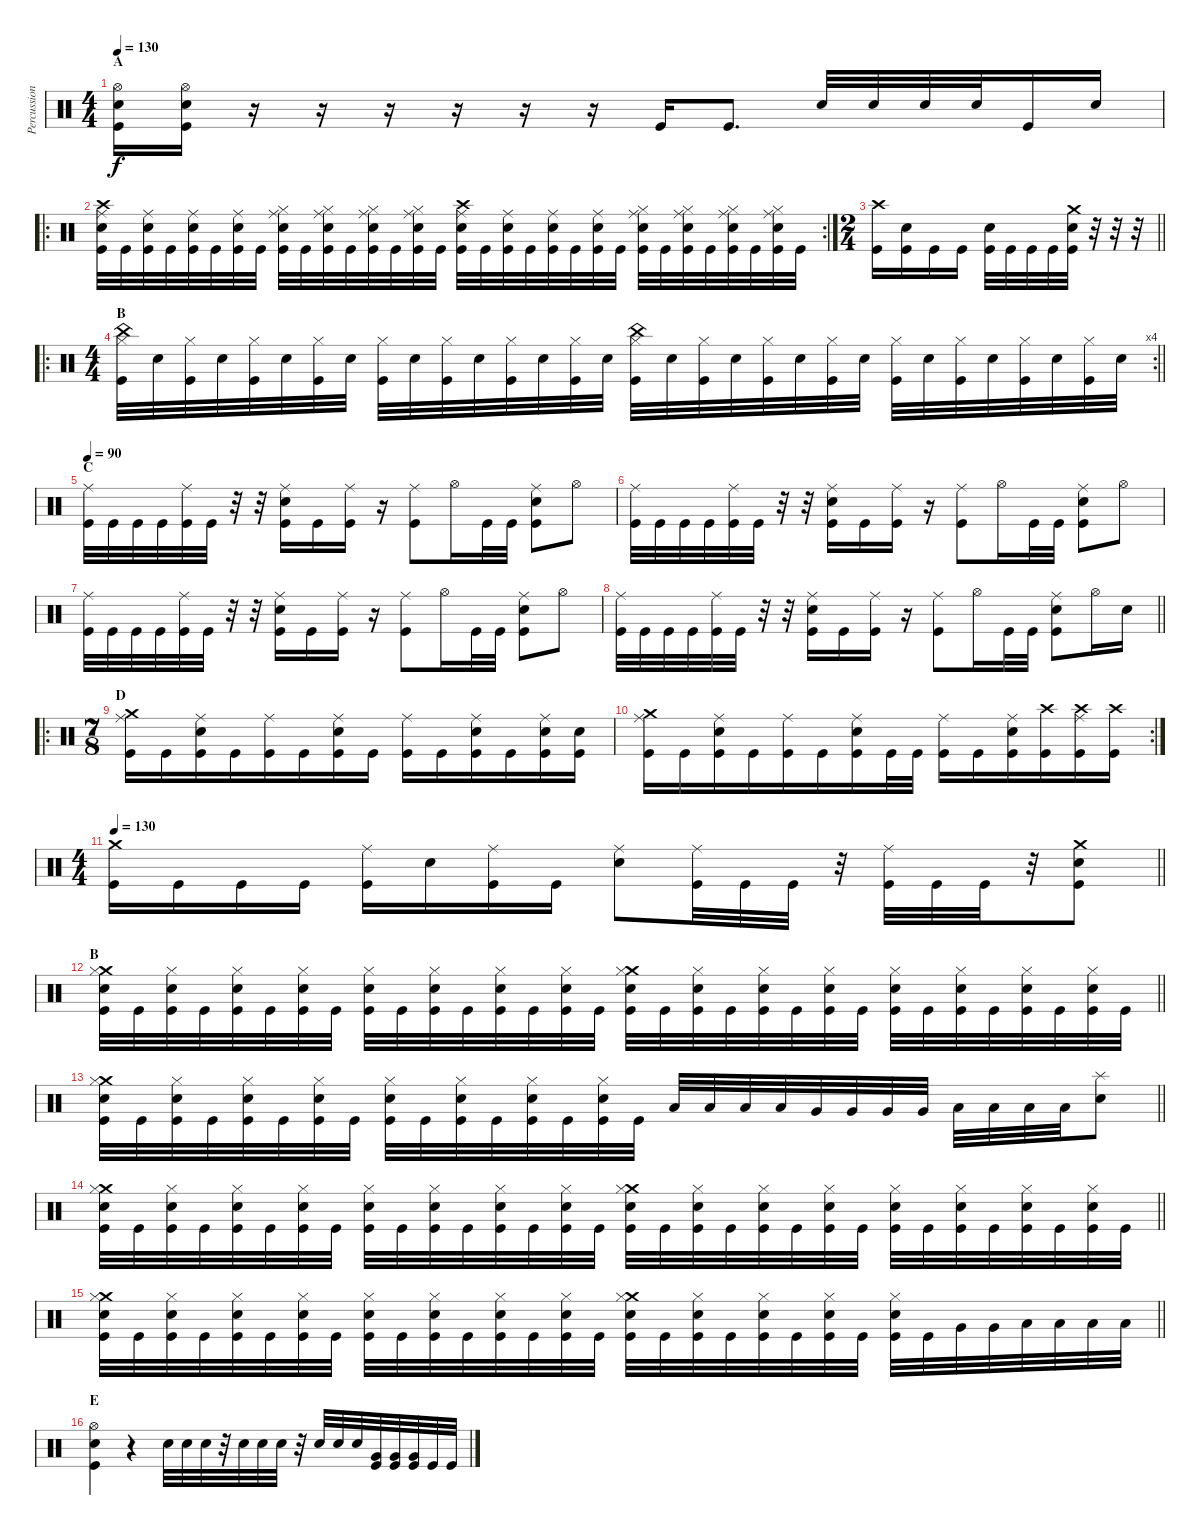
\track ("Percussion" "Percussion") {instrument percussion}
\staff {score}
\articulation defaults
\ts (4 4)
\section ("" "A")
\tempo 130
\clef neutral
\ks c
("Kick (hit)" "Snare (hit) 2" "Hi-Hat (open)").16{dy f} ("Kick (hit)" "Snare (hit) 2" "Hi-Hat (open)").16 r.16 r.16 r.16 r.16 r.16 r.16 "Kick (hit)".16 "Kick (hit)".8{d} "Snare (hit) 2".32 "Snare (hit) 2".32 "Snare (hit) 2".32 "Snare (hit) 2".32 "Kick (hit)".16 "Snare (hit) 2".16 |
\ro
\rc 2
("Kick (hit)" "Ride (middle)" "Snare (hit) 2" "Crash high (hit)").32 "Kick (hit)".32 ("Kick (hit)" "Ride (middle)" "Snare (hit) 2").32 "Kick (hit)".32 ("Kick (hit)" "Ride (middle)" "Snare (hit) 2").32 "Kick (hit)".32 ("Kick (hit)" "Ride (middle)" "Snare (hit) 2").32 "Kick (hit)".32 ("Kick (hit)" "Ride (middle)" "Snare (hit) 2" "Hi-Hat (closed)").32 "Kick (hit)".32 ("Kick (hit)" "Ride (middle)" "Snare (hit) 2" "Hi-Hat (closed)").32 "Kick (hit)".32 ("Kick (hit)" "Ride (middle)" "Snare (hit) 2" "Hi-Hat (closed)").32 "Kick (hit)".32 ("Kick (hit)" "Ride (middle)" "Snare (hit) 2" "Hi-Hat (closed)").32 "Kick (hit)".32 ("Kick (hit)" "Ride (middle)" "Snare (hit) 2" "Crash high (hit)").32 "Kick (hit)".32 ("Kick (hit)" "Ride (middle)" "Snare (hit) 2").32 "Kick (hit)".32 ("Kick (hit)" "Ride (middle)" "Snare (hit) 2").32 "Kick (hit)".32 ("Kick (hit)" "Ride (middle)" "Snare (hit) 2").32 "Kick (hit)".32 ("Kick (hit)" "Ride (middle)" "Snare (hit) 2" "Hi-Hat (closed)").32 "Kick (hit)".32 ("Kick (hit)" "Ride (middle)" "Snare (hit) 2" "Hi-Hat (closed)").32 "Kick (hit)".32 ("Kick (hit)" "Ride (middle)" "Snare (hit) 2" "Hi-Hat (closed)").32 "Kick (hit)".32 ("Kick (hit)" "Ride (middle)" "Snare (hit) 2" "Hi-Hat (closed)").32 "Kick (hit)".32 |
\ts (2 4)
\barLineRight lightlight
("Kick (hit)" "Crash high (hit)").16 ("Kick (hit)" "Snare (hit) 2").16 "Kick (hit)".16 "Kick (hit)".16 ("Kick (hit)" "Snare (hit) 2").32 "Kick (hit)".32 "Kick (hit)".32 "Kick (hit)".32 ("Kick (hit)" "Snare (hit) 2" "Crash medium (hit)").32 r.32 r.32 r.32 |
\ro
\rc 4
\ts (4 4)
\section ("" "B")
\barLineRight lightlight
("Kick (hit)" "Hi-Hat (closed)" "China (hit)").32 "Snare (hit) 2".32 ("Kick (hit)" "Hi-Hat (closed)").32 "Snare (hit) 2".32 ("Kick (hit)" "Hi-Hat (closed)").32 "Snare (hit) 2".32 ("Kick (hit)" "Hi-Hat (closed)").32 "Snare (hit) 2".32 ("Kick (hit)" "Hi-Hat (closed)").32 "Snare (hit) 2".32 ("Kick (hit)" "Hi-Hat (closed)").32 "Snare (hit) 2".32 ("Kick (hit)" "Hi-Hat (closed)").32 "Snare (hit) 2".32 ("Kick (hit)" "Hi-Hat (closed)").32 "Snare (hit) 2".32 ("Kick (hit)" "Hi-Hat (closed)" "China (hit)").32 "Snare (hit) 2".32 ("Kick (hit)" "Hi-Hat (closed)").32 "Snare (hit) 2".32 ("Kick (hit)" "Hi-Hat (closed)").32 "Snare (hit) 2".32 ("Kick (hit)" "Hi-Hat (closed)").32 "Snare (hit) 2".32 ("Kick (hit)" "Hi-Hat (closed)").32 "Snare (hit) 2".32 ("Kick (hit)" "Hi-Hat (closed)").32 "Snare (hit) 2".32 ("Kick (hit)" "Hi-Hat (closed)").32 "Snare (hit) 2".32 ("Kick (hit)" "Hi-Hat (closed)").32 "Snare (hit) 2".32 |
\section ("" "C")
\tempo 90
("Kick (hit)" "Ride (middle)").32 "Kick (hit)".32 "Kick (hit)".32 "Kick (hit)".32 ("Kick (hit)" "Ride (middle)").32 "Kick (hit)".32 r.32 r.32 ("Kick (hit)" "Ride (middle)" "Snare (hit) 2").16 "Kick (hit)".16 ("Kick (hit)" "Ride (middle)").16 r.16 ("Kick (hit)" "Ride (middle)").8 "Hi-Hat (open)".16 "Kick (hit)".32 "Kick (hit)".32 ("Kick (hit)" "Snare (hit) 2" "Ride (middle)").8 "Hi-Hat (open)".8 |
("Kick (hit)" "Ride (middle)").32 "Kick (hit)".32 "Kick (hit)".32 "Kick (hit)".32 ("Kick (hit)" "Ride (middle)").32 "Kick (hit)".32 r.32 r.32 ("Kick (hit)" "Ride (middle)" "Snare (hit) 2").16 "Kick (hit)".16 ("Kick (hit)" "Ride (middle)").16 r.16 ("Kick (hit)" "Ride (middle)").8 "Hi-Hat (open)".16 "Kick (hit)".32 "Kick (hit)".32 ("Kick (hit)" "Snare (hit) 2" "Ride (middle)").8 "Hi-Hat (open)".8 |
("Kick (hit)" "Ride (middle)").32 "Kick (hit)".32 "Kick (hit)".32 "Kick (hit)".32 ("Kick (hit)" "Ride (middle)").32 "Kick (hit)".32 r.32 r.32 ("Kick (hit)" "Ride (middle)" "Snare (hit) 2").16 "Kick (hit)".16 ("Kick (hit)" "Ride (middle)").16 r.16 ("Kick (hit)" "Ride (middle)").8 "Hi-Hat (open)".16 "Kick (hit)".32 "Kick (hit)".32 ("Kick (hit)" "Snare (hit) 2" "Ride (middle)").8 "Hi-Hat (open)".8 |
\barLineRight lightlight
("Kick (hit)" "Ride (middle)").32 "Kick (hit)".32 "Kick (hit)".32 "Kick (hit)".32 ("Kick (hit)" "Ride (middle)").32 "Kick (hit)".32 r.32 r.32 ("Kick (hit)" "Ride (middle)" "Snare (hit) 2").16 "Kick (hit)".16 ("Kick (hit)" "Ride (middle)").16 r.16 ("Kick (hit)" "Ride (middle)").8 "Hi-Hat (open)".16 "Kick (hit)".32 "Kick (hit)".32 ("Kick (hit)" "Snare (hit) 2" "Ride (middle)").8 "Hi-Hat (open)".16 "Snare (hit) 2".16 |
\ro
\ts (7 8)
\section ("" "D")
("Kick (hit)" "Ride (middle)" "Crash medium (hit)").16 "Kick (hit)".16 ("Kick (hit)" "Ride (middle)" "Snare (hit) 2").16 "Kick (hit)".16 ("Kick (hit)" "Ride (middle)").16 "Kick (hit)".16 ("Kick (hit)" "Ride (middle)" "Snare (hit) 2").16 "Kick (hit)".16 ("Kick (hit)" "Ride (middle)").16 "Kick (hit)".16 ("Kick (hit)" "Ride (middle)" "Snare (hit) 2").16 "Kick (hit)".16 ("Kick (hit)" "Ride (middle)" "Snare (hit) 2").16 ("Kick (hit)" "Snare (hit) 2").16 |
\rc 2
("Kick (hit)" "Ride (middle)" "Crash medium (hit)").16 "Kick (hit)".16 ("Kick (hit)" "Ride (middle)" "Snare (hit) 2").16 "Kick (hit)".16 ("Kick (hit)" "Ride (middle)").16 "Kick (hit)".16 ("Kick (hit)" "Ride (middle)" "Snare (hit) 2").16 "Kick (hit)".32 "Kick (hit)".32 ("Kick (hit)" "Ride (middle)").16 "Kick (hit)".16 ("Kick (hit)" "Ride (middle)" "Snare (hit) 2").16 ("Kick (hit)" "Crash high (hit)").16 ("Kick (hit)" "Ride (middle)" "Crash high (hit)").16 ("Kick (hit)" "Crash high (hit)").16 |
\ts (4 4)
\tempo 130
\barLineRight lightlight
("Kick (hit)" "Crash medium (hit)").16 "Kick (hit)".16 "Kick (hit)".16 "Kick (hit)".16 ("Kick (hit)" "Ride (middle)").16 "Snare (hit) 2".16 ("Kick (hit)" "Ride (middle)").16 "Kick (hit)".16 ("Snare (hit) 2" "Ride (middle)").8 ("Kick (hit)" "Ride (middle)").32 "Kick (hit)".32 "Kick (hit)".32 r.32 ("Kick (hit)" "Ride (middle)").32 "Kick (hit)".32 "Kick (hit)".32 r.32 ("Kick (hit)" "Snare (hit) 2" "Crash medium (hit)").8 |
\section ("" "B")
\barLineRight lightlight
("Kick (hit)" "Snare (hit) 2" "Crash medium (hit)" "Hi-Hat (closed)").32 "Kick (hit)".32 ("Kick (hit)" "Snare (hit) 2" "Hi-Hat (closed)").32 "Kick (hit)".32 ("Kick (hit)" "Snare (hit) 2" "Hi-Hat (closed)").32 "Kick (hit)".32 ("Kick (hit)" "Snare (hit) 2" "Hi-Hat (closed)").32 "Kick (hit)".32 ("Kick (hit)" "Snare (hit) 2" "Hi-Hat (closed)").32 "Kick (hit)".32 ("Kick (hit)" "Snare (hit) 2" "Hi-Hat (closed)").32 "Kick (hit)".32 ("Kick (hit)" "Snare (hit) 2" "Hi-Hat (closed)").32 "Kick (hit)".32 ("Kick (hit)" "Snare (hit) 2" "Hi-Hat (closed)").32 "Kick (hit)".32 ("Kick (hit)" "Snare (hit) 2" "Crash medium (hit)" "Hi-Hat (closed)").32 "Kick (hit)".32 ("Kick (hit)" "Snare (hit) 2" "Hi-Hat (closed)").32 "Kick (hit)".32 ("Kick (hit)" "Snare (hit) 2" "Hi-Hat (closed)").32 "Kick (hit)".32 ("Kick (hit)" "Snare (hit) 2" "Hi-Hat (closed)").32 "Kick (hit)".32 ("Kick (hit)" "Snare (hit) 2" "Hi-Hat (closed)").32 "Kick (hit)".32 ("Kick (hit)" "Snare (hit) 2" "Hi-Hat (closed)").32 "Kick (hit)".32 ("Kick (hit)" "Snare (hit) 2" "Hi-Hat (closed)").32 "Kick (hit)".32 ("Kick (hit)" "Snare (hit) 2" "Hi-Hat (closed)").32 "Kick (hit)".32 |
\barLineRight lightlight
("Kick (hit)" "Snare (hit) 2" "Crash medium (hit)" "Hi-Hat (closed)").32 "Kick (hit)".32 ("Kick (hit)" "Snare (hit) 2" "Hi-Hat (closed)").32 "Kick (hit)".32 ("Kick (hit)" "Snare (hit) 2" "Hi-Hat (closed)").32 "Kick (hit)".32 ("Kick (hit)" "Snare (hit) 2" "Hi-Hat (closed)").32 "Kick (hit)".32 ("Kick (hit)" "Snare (hit) 2" "Hi-Hat (closed)").32 "Kick (hit)".32 ("Kick (hit)" "Snare (hit) 2" "Hi-Hat (closed)").32 "Kick (hit)".32 ("Kick (hit)" "Snare (hit) 2" "Hi-Hat (closed)").32 "Kick (hit)".32 ("Kick (hit)" "Snare (hit) 2" "Hi-Hat (closed)").32 "Kick (hit)".32 "Low Tom (hit)".32 "Low Tom (hit)".32 "Low Tom (hit)".32 "Low Tom (hit)".32 "Very Low Tom (hit)".32 "Very Low Tom (hit)".32 "Very Low Tom (hit)".32 "Very Low Tom (hit)".32 "Low Floor Tom (hit)".32 "Low Floor Tom (hit)".32 "Low Floor Tom (hit)".32 "Low Floor Tom (hit)".32 ("Splash (hit)" "Snare (hit) 2").8 |
\barLineRight lightlight
("Kick (hit)" "Snare (hit) 2" "Crash medium (hit)" "Hi-Hat (closed)").32 "Kick (hit)".32 ("Kick (hit)" "Snare (hit) 2" "Hi-Hat (closed)").32 "Kick (hit)".32 ("Kick (hit)" "Snare (hit) 2" "Hi-Hat (closed)").32 "Kick (hit)".32 ("Kick (hit)" "Snare (hit) 2" "Hi-Hat (closed)").32 "Kick (hit)".32 ("Kick (hit)" "Snare (hit) 2" "Hi-Hat (closed)").32 "Kick (hit)".32 ("Kick (hit)" "Snare (hit) 2" "Hi-Hat (closed)").32 "Kick (hit)".32 ("Kick (hit)" "Snare (hit) 2" "Hi-Hat (closed)").32 "Kick (hit)".32 ("Kick (hit)" "Snare (hit) 2" "Hi-Hat (closed)").32 "Kick (hit)".32 ("Kick (hit)" "Snare (hit) 2" "Crash medium (hit)" "Hi-Hat (closed)").32 "Kick (hit)".32 ("Kick (hit)" "Snare (hit) 2" "Hi-Hat (closed)").32 "Kick (hit)".32 ("Kick (hit)" "Snare (hit) 2" "Hi-Hat (closed)").32 "Kick (hit)".32 ("Kick (hit)" "Snare (hit) 2" "Hi-Hat (closed)").32 "Kick (hit)".32 ("Kick (hit)" "Snare (hit) 2" "Hi-Hat (closed)").32 "Kick (hit)".32 ("Kick (hit)" "Snare (hit) 2" "Hi-Hat (closed)").32 "Kick (hit)".32 ("Kick (hit)" "Snare (hit) 2" "Hi-Hat (closed)").32 "Kick (hit)".32 ("Kick (hit)" "Snare (hit) 2" "Hi-Hat (closed)").32 "Kick (hit)".32 |
\barLineRight lightlight
("Kick (hit)" "Snare (hit) 2" "Crash medium (hit)" "Hi-Hat (closed)").32 "Kick (hit)".32 ("Kick (hit)" "Snare (hit) 2" "Hi-Hat (closed)").32 "Kick (hit)".32 ("Kick (hit)" "Snare (hit) 2" "Hi-Hat (closed)").32 "Kick (hit)".32 ("Kick (hit)" "Snare (hit) 2" "Hi-Hat (closed)").32 "Kick (hit)".32 ("Kick (hit)" "Snare (hit) 2" "Hi-Hat (closed)").32 "Kick (hit)".32 ("Kick (hit)" "Snare (hit) 2" "Hi-Hat (closed)").32 "Kick (hit)".32 ("Kick (hit)" "Snare (hit) 2" "Hi-Hat (closed)").32 "Kick (hit)".32 ("Kick (hit)" "Snare (hit) 2" "Hi-Hat (closed)").32 "Kick (hit)".32 ("Kick (hit)" "Snare (hit) 2" "Crash medium (hit)" "Hi-Hat (closed)").32 "Kick (hit)".32 ("Kick (hit)" "Snare (hit) 2" "Hi-Hat (closed)").32 "Kick (hit)".32 ("Kick (hit)" "Snare (hit) 2" "Hi-Hat (closed)").32 "Kick (hit)".32 ("Kick (hit)" "Snare (hit) 2" "Hi-Hat (closed)").32 "Kick (hit)".32 ("Kick (hit)" "Snare (hit) 2" "Hi-Hat (closed)").32 "Kick (hit)".32 "Very Low Tom (hit)".32 "Very Low Tom (hit)".32 "Low Floor Tom (hit)".32 "Low Floor Tom (hit)".32 "Low Floor Tom (hit)".32 "Low Floor Tom (hit)".32 |
\section ("" "E")
("Kick (hit)" "Snare (hit) 2" "Hi-Hat (open)").4 r.4 "Snare (hit) 2".32 "Snare (hit) 2".32 "Snare (hit) 2".32 r.32 "Snare (hit) 2".32 "Snare (hit) 2".32 "Snare (hit) 2".32 r.32 "Snare (hit) 2".32 "Snare (hit) 2".32 "Snare (hit) 2".32 ("Kick (hit)" "Very Low Tom (hit)").32 ("Kick (hit)" "Very Low Tom (hit)").32 ("Kick (hit)" "Very Low Tom (hit)").32 "Kick (hit)".32 "Kick (hit)".32
